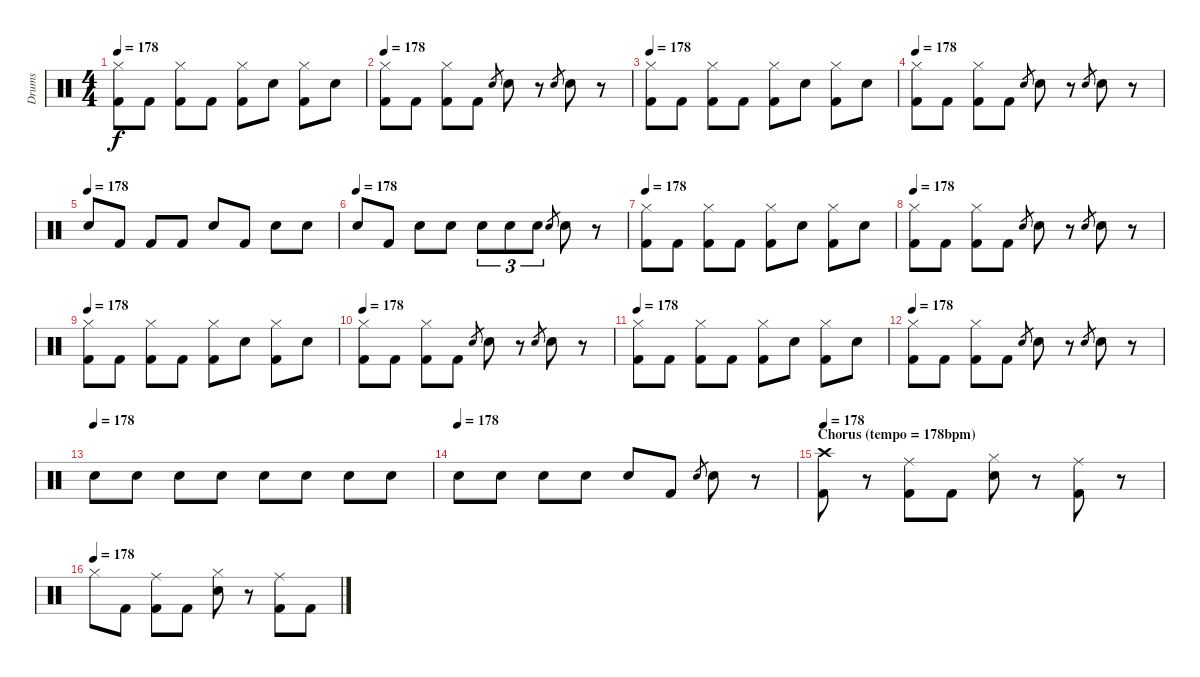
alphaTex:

\track ("Drums" "Drums") {instrument percussion}
\staff {score}
\articulation defaults
\ts (4 4)
\tempo 178
\clef neutral
\ks c
("Hi-Hat (closed)" "Kick (hit) 2").8{dy f} "Kick (hit) 2".8 ("Hi-Hat (closed)" "Kick (hit) 2").8 "Kick (hit) 2".8 ("Hi-Hat (closed)" "Kick (hit) 2").8 "Snare (hit) 2".8 ("Hi-Hat (closed)" "Kick (hit) 2").8 "Snare (hit) 2".8 |
\tempo 178
("Hi-Hat (closed)" "Kick (hit) 2").8 "Kick (hit) 2".8 ("Hi-Hat (closed)" "Kick (hit) 2").8 "Kick (hit) 2".8 "Snare (hit) 2".8{gr} "Snare (hit) 2".8 r.8 "Snare (hit) 2".8{gr} "Snare (hit) 2".8 r.8 |
\tempo 178
("Hi-Hat (closed)" "Kick (hit) 2").8 "Kick (hit) 2".8 ("Hi-Hat (closed)" "Kick (hit) 2").8 "Kick (hit) 2".8 ("Hi-Hat (closed)" "Kick (hit) 2").8 "Snare (hit) 2".8 ("Hi-Hat (closed)" "Kick (hit) 2").8 "Snare (hit) 2".8 |
\tempo 178
("Hi-Hat (closed)" "Kick (hit) 2").8 "Kick (hit) 2".8 ("Hi-Hat (closed)" "Kick (hit) 2").8 "Kick (hit) 2".8 "Snare (hit) 2".8{gr} "Snare (hit) 2".8 r.8 "Snare (hit) 2".8{gr} "Snare (hit) 2".8 r.8 |
\tempo (178)
"Snare (hit) 2".8 "Kick (hit) 2".8 "Kick (hit) 2".8 "Kick (hit) 2".8 "Snare (hit) 2".8 "Kick (hit) 2".8 "Snare (hit) 2".8 "Snare (hit) 2".8 |
\tempo (178)
"Snare (hit) 2".8 "Kick (hit) 2".8 "Snare (hit) 2".8 "Snare (hit) 2".8 "Snare (hit) 2".8{tu (3 2)} "Snare (hit) 2".8{tu (3 2)} "Snare (hit) 2".8{tu (3 2)} "Snare (hit) 2".8{gr} "Snare (hit) 2".8 r.8 |
\tempo 178
("Hi-Hat (closed)" "Kick (hit) 2").8 "Kick (hit) 2".8 ("Hi-Hat (closed)" "Kick (hit) 2").8 "Kick (hit) 2".8 ("Hi-Hat (closed)" "Kick (hit) 2").8 "Snare (hit) 2".8 ("Hi-Hat (closed)" "Kick (hit) 2").8 "Snare (hit) 2".8 |
\tempo 178
("Hi-Hat (closed)" "Kick (hit) 2").8 "Kick (hit) 2".8 ("Hi-Hat (closed)" "Kick (hit) 2").8 "Kick (hit) 2".8 "Snare (hit) 2".8{gr} "Snare (hit) 2".8 r.8 "Snare (hit) 2".8{gr} "Snare (hit) 2".8 r.8 |
\tempo 178
("Hi-Hat (closed)" "Kick (hit) 2").8 "Kick (hit) 2".8 ("Hi-Hat (closed)" "Kick (hit) 2").8 "Kick (hit) 2".8 ("Hi-Hat (closed)" "Kick (hit) 2").8 "Snare (hit) 2".8 ("Hi-Hat (closed)" "Kick (hit) 2").8 "Snare (hit) 2".8 |
\tempo 178
("Hi-Hat (closed)" "Kick (hit) 2").8 "Kick (hit) 2".8 ("Hi-Hat (closed)" "Kick (hit) 2").8 "Kick (hit) 2".8 "Snare (hit) 2".8{gr} "Snare (hit) 2".8 r.8 "Snare (hit) 2".8{gr} "Snare (hit) 2".8 r.8 |
\tempo 178
("Hi-Hat (closed)" "Kick (hit) 2").8 "Kick (hit) 2".8 ("Hi-Hat (closed)" "Kick (hit) 2").8 "Kick (hit) 2".8 ("Hi-Hat (closed)" "Kick (hit) 2").8 "Snare (hit) 2".8 ("Hi-Hat (closed)" "Kick (hit) 2").8 "Snare (hit) 2".8 |
\tempo 178
("Hi-Hat (closed)" "Kick (hit) 2").8 "Kick (hit) 2".8 ("Hi-Hat (closed)" "Kick (hit) 2").8 "Kick (hit) 2".8 "Snare (hit) 2".8{gr} "Snare (hit) 2".8 r.8 "Snare (hit) 2".8{gr} "Snare (hit) 2".8 r.8 |
\tempo (178)
"Snare (hit) 2".8 "Snare (hit) 2".8 "Snare (hit) 2".8 "Snare (hit) 2".8 "Snare (hit) 2".8 "Snare (hit) 2".8 "Snare (hit) 2".8 "Snare (hit) 2".8 |
\tempo (178)
"Snare (hit) 2".8 "Snare (hit) 2".8 "Snare (hit) 2".8 "Snare (hit) 2".8 "Snare (hit) 2".8 "Kick (hit) 2".8 "Snare (hit) 2".8{gr} "Snare (hit) 2".8 r.8 |
\section ("" "Chorus (tempo = 178bpm)")
\tempo 178
("Crash high (hit)" "Kick (hit) 2").8 r.8 ("Ride (middle)" "Kick (hit) 2").8 "Kick (hit) 2".8 ("Hi-Hat (closed)" "Snare (hit) 2").8 r.8 ("Ride (middle)" "Kick (hit) 2").8 r.8 |
\tempo (178)
"Hi-Hat (closed)".8 "Kick (hit) 2".8 ("Ride (middle)" "Kick (hit) 2").8 "Kick (hit) 2".8 ("Hi-Hat (closed)" "Snare (hit) 2").8 r.8 ("Ride (middle)" "Kick (hit) 2").8 "Kick (hit) 2".8
